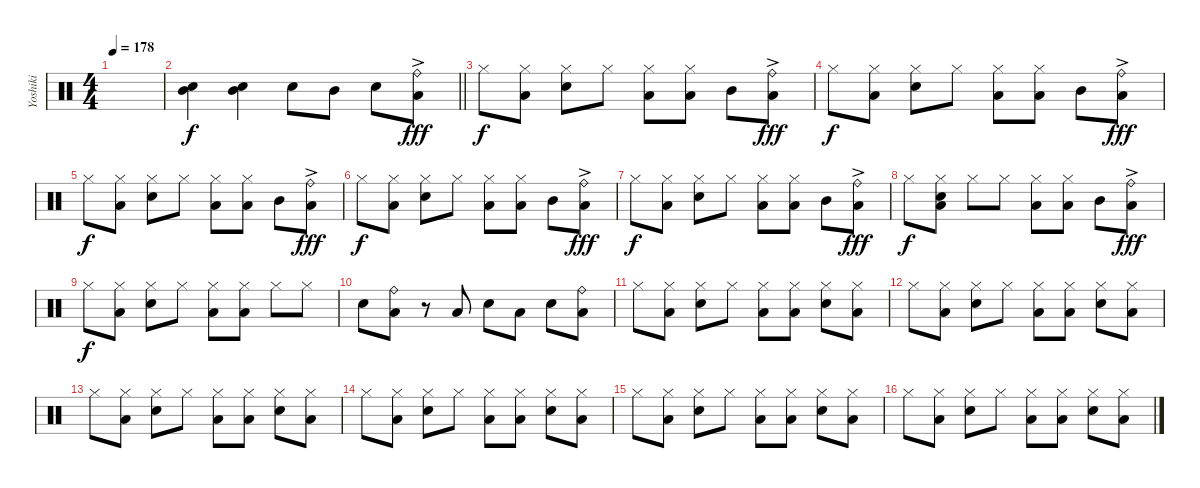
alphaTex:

\track ("Yoshiki" "Yoshiki") {instrument percussion}
\staff {score}
\articulation defaults
\ts (4 4)
\tempo 178
\clef neutral
\ks c
|
\barLineRight lightlight
("Snare (hit) 2" "Mid Tom (hit)").4 ("Mid Tom (hit)" "Snare (hit) 2").4 "Snare (hit) 2".8 "Mid Tom (hit)".8 "Snare (hit) 2".8 ("Low Floor Tom (hit)"{ac} "Ride (bell)").8{dy fff} |
"Hi-Hat (closed)".8{dy f} ("Low Floor Tom (hit)" "Hi-Hat (closed)").8 ("Hi-Hat (closed)" "Snare (hit) 2").8 "Hi-Hat (closed)".8 ("Hi-Hat (closed)" "Low Floor Tom (hit)").8 ("Hi-Hat (closed)" "Low Floor Tom (hit)").8 "Mid Tom (hit)".8 ("Low Floor Tom (hit)"{ac} "Ride (bell)").8{dy fff} |
"Hi-Hat (closed)".8{dy f} ("Low Floor Tom (hit)" "Hi-Hat (closed)").8 ("Hi-Hat (closed)" "Snare (hit) 2").8 "Hi-Hat (closed)".8 ("Hi-Hat (closed)" "Low Floor Tom (hit)").8 ("Hi-Hat (closed)" "Low Floor Tom (hit)").8 "Mid Tom (hit)".8 ("Low Floor Tom (hit)"{ac} "Ride (bell)").8{dy fff} |
"Hi-Hat (closed)".8{dy f} ("Low Floor Tom (hit)" "Hi-Hat (closed)").8 ("Hi-Hat (closed)" "Snare (hit) 2").8 "Hi-Hat (closed)".8 ("Hi-Hat (closed)" "Low Floor Tom (hit)").8 ("Hi-Hat (closed)" "Low Floor Tom (hit)").8 "Mid Tom (hit)".8 ("Low Floor Tom (hit)"{ac} "Ride (bell)").8{dy fff} |
"Hi-Hat (closed)".8{dy f} ("Low Floor Tom (hit)" "Hi-Hat (closed)").8 ("Hi-Hat (closed)" "Snare (hit) 2").8 "Hi-Hat (closed)".8 ("Hi-Hat (closed)" "Low Floor Tom (hit)").8 ("Hi-Hat (closed)" "Low Floor Tom (hit)").8 "Mid Tom (hit)".8 ("Low Floor Tom (hit)"{ac} "Ride (bell)").8{dy fff} |
"Hi-Hat (closed)".8{dy f} ("Low Floor Tom (hit)" "Hi-Hat (closed)").8 ("Hi-Hat (closed)" "Snare (hit) 2").8 "Hi-Hat (closed)".8 ("Hi-Hat (closed)" "Low Floor Tom (hit)").8 ("Hi-Hat (closed)" "Low Floor Tom (hit)").8 "Mid Tom (hit)".8 ("Low Floor Tom (hit)"{ac} "Ride (bell)").8{dy fff} |
"Hi-Hat (closed)".8{dy f} ("Low Floor Tom (hit)" "Hi-Hat (closed)" "Snare (hit) 2").8 "Hi-Hat (closed)".8 "Hi-Hat (closed)".8 ("Hi-Hat (closed)" "Low Floor Tom (hit)").8 ("Hi-Hat (closed)" "Low Floor Tom (hit)").8 "Mid Tom (hit)".8 ("Low Floor Tom (hit)"{ac} "Ride (bell)").8{dy fff} |
"Hi-Hat (closed)".8{dy f} ("Hi-Hat (closed)" "Low Floor Tom (hit)").8 ("Hi-Hat (closed)" "Snare (hit) 2").8 "Hi-Hat (closed)".8 ("Hi-Hat (closed)" "Low Floor Tom (hit)").8 ("Hi-Hat (closed)" "Low Floor Tom (hit)").8 "Hi-Hat (closed)".8 "Hi-Hat (closed)".8 |
"Snare (hit) 2".8 ("Ride (bell)" "Low Floor Tom (hit)").8 r.8 "Low Floor Tom (hit)".8 "Snare (hit) 2".8 "Low Floor Tom (hit)".8 "Snare (hit) 2".8 ("Ride (bell)" "Low Floor Tom (hit)").8 |
"Hi-Hat (closed)".8 ("Hi-Hat (closed)" "Low Floor Tom (hit)").8 ("Hi-Hat (closed)" "Snare (hit) 2").8 "Hi-Hat (closed)".8 ("Hi-Hat (closed)" "Low Floor Tom (hit)").8 ("Hi-Hat (closed)" "Low Floor Tom (hit)").8 ("Hi-Hat (closed)" "Snare (hit) 2").8 ("Hi-Hat (closed)" "Low Floor Tom (hit)").8 |
"Hi-Hat (closed)".8 ("Hi-Hat (closed)" "Low Floor Tom (hit)").8 ("Hi-Hat (closed)" "Snare (hit) 2").8 "Hi-Hat (closed)".8 ("Hi-Hat (closed)" "Low Floor Tom (hit)").8 ("Hi-Hat (closed)" "Low Floor Tom (hit)").8 ("Hi-Hat (closed)" "Snare (hit) 2").8 ("Hi-Hat (closed)" "Low Floor Tom (hit)").8 |
"Hi-Hat (closed)".8 ("Hi-Hat (closed)" "Low Floor Tom (hit)").8 ("Hi-Hat (closed)" "Snare (hit) 2").8 "Hi-Hat (closed)".8 ("Hi-Hat (closed)" "Low Floor Tom (hit)").8 ("Hi-Hat (closed)" "Low Floor Tom (hit)").8 ("Hi-Hat (closed)" "Snare (hit) 2").8 ("Hi-Hat (closed)" "Low Floor Tom (hit)").8 |
"Hi-Hat (closed)".8 ("Hi-Hat (closed)" "Low Floor Tom (hit)").8 ("Hi-Hat (closed)" "Snare (hit) 2").8 "Hi-Hat (closed)".8 ("Hi-Hat (closed)" "Low Floor Tom (hit)").8 ("Hi-Hat (closed)" "Low Floor Tom (hit)").8 ("Hi-Hat (closed)" "Snare (hit) 2").8 ("Hi-Hat (closed)" "Low Floor Tom (hit)").8 |
"Hi-Hat (closed)".8 ("Hi-Hat (closed)" "Low Floor Tom (hit)").8 ("Hi-Hat (closed)" "Snare (hit) 2").8 "Hi-Hat (closed)".8 ("Hi-Hat (closed)" "Low Floor Tom (hit)").8 ("Hi-Hat (closed)" "Low Floor Tom (hit)").8 ("Hi-Hat (closed)" "Snare (hit) 2").8 ("Hi-Hat (closed)" "Low Floor Tom (hit)").8 |
"Hi-Hat (closed)".8 ("Hi-Hat (closed)" "Low Floor Tom (hit)").8 ("Hi-Hat (closed)" "Snare (hit) 2").8 "Hi-Hat (closed)".8 ("Hi-Hat (closed)" "Low Floor Tom (hit)").8 ("Hi-Hat (closed)" "Low Floor Tom (hit)").8 ("Hi-Hat (closed)" "Snare (hit) 2").8 ("Hi-Hat (closed)" "Low Floor Tom (hit)").8
